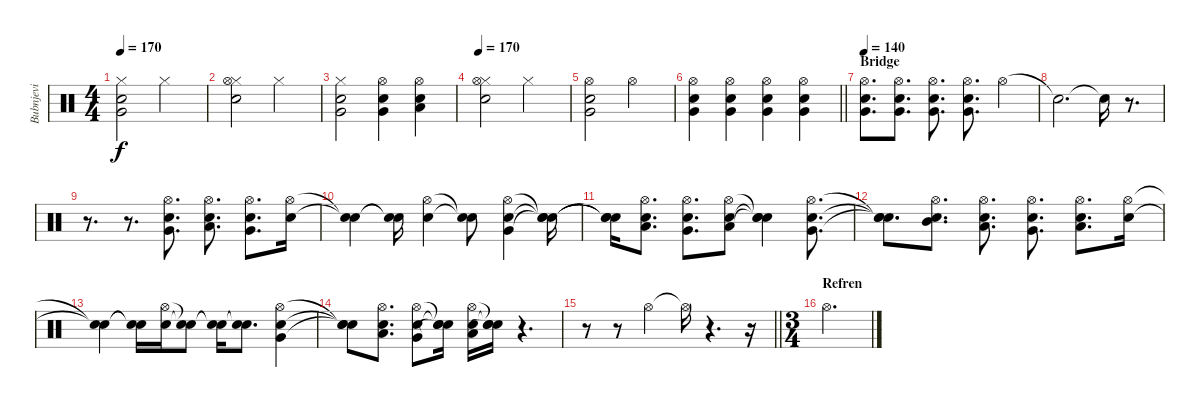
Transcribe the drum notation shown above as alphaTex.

\track ("Bubnjevi" "Bubnjevi") {instrument percussion}
\staff {score}
\articulation defaults
\ts (4 4)
\tempo 170
\clef neutral
\ks c
("Hi-Hat (closed)" "Very Low Tom (hit)" "Electric Snare (hit)").2{dy f} "Hi-Hat (closed)".2 |
("Hi-Hat (closed)" "Hi-Hat (open)" "Electric Snare (hit)").2 "Hi-Hat (closed)".2 |
("Hi-Hat (closed)" "Very Low Tom (hit)" "Electric Snare (hit)").2 ("Hi-Hat (open)" "Very Low Tom (hit)" "Electric Snare (hit)").4 ("Hi-Hat (open)" "Low Tom (hit)" "Electric Snare (hit)").4 |
\tempo 170
("Hi-Hat (closed)" "Hi-Hat (open)" "Electric Snare (hit)").2 "Hi-Hat (closed)".2 |
("Hi-Hat (open)" "Electric Snare (hit)" "Very Low Tom (hit)").2 "Hi-Hat (open)".2 |
\barLineRight lightlight
("Hi-Hat (open)" "Very Low Tom (hit)" "Electric Snare (hit)").4 ("Hi-Hat (open)" "Very Low Tom (hit)" "Electric Snare (hit)").4 ("Hi-Hat (open)" "Very Low Tom (hit)" "Electric Snare (hit)").4 ("Hi-Hat (open)" "Very Low Tom (hit)" "Electric Snare (hit)").4 |
\section ("" "Bridge")
\tempo 140
("Hi-Hat (open)" "Very Low Tom (hit)" "Electric Snare (hit)").8{d} ("Hi-Hat (open)" "Very Low Tom (hit)" "Electric Snare (hit)").8{d} ("Hi-Hat (open)" "Very Low Tom (hit)" "Electric Snare (hit)").8{d} ("Hi-Hat (open)" "Very Low Tom (hit)" "Electric Snare (hit)").8{d} "Hi-Hat (open)".4 |
"Snare (hit)"{t}.2{d} "Snare (hit)"{t}.16 r.8{d} |
r.8{d} r.8{d} ("Hi-Hat (open)" "Very Low Tom (hit)" "Electric Snare (hit)").8{d} ("Hi-Hat (open)" "Low Tom (hit)" "Electric Snare (hit)").8{d} ("Hi-Hat (open)" "Very Low Tom (hit)" "Electric Snare (hit)").8{d} ("Hi-Hat (open)" "Electric Snare (hit)").16 |
("Snare (hit)"{t} "Snare (hit)"{t}).4 ("Snare (hit)"{t} "Snare (hit)"{t}).16 ("Hi-Hat (open)" "Electric Snare (hit)").4 ("Snare (hit)"{t} "Snare (hit)"{t}).8 ("Hi-Hat (open)" "Electric Snare (hit)" "Very Low Tom (hit)").4 ("Snare (hit)"{t} "Snare (hit)"{t} "Snare (hit)"{t}).16 |
("Snare (hit)"{t} "Snare (hit)"{t} "Snare (hit)"{t}).16 ("Hi-Hat (open)" "Low Tom (hit)" "Electric Snare (hit)").8{d} ("Hi-Hat (open)" "Very Low Tom (hit)" "Electric Snare (hit)").8{d} ("Hi-Hat (open)" "Low Tom (hit)" "Electric Snare (hit)").8 ("Snare (hit)"{t} "Snare (hit)"{t} "Snare (hit)"{t}).4 ("Hi-Hat (open)" "Very Low Tom (hit)" "Electric Snare (hit)").8{d} |
("Snare (hit)"{t} "Snare (hit)"{t} "Snare (hit)"{t}).8{d} ("Hi-Hat (open)" "Mid Tom (hit)" "Electric Snare (hit)").8{d} ("Hi-Hat (open)" "Low Tom (hit)" "Electric Snare (hit)").8{d} ("Hi-Hat (open)" "Very Low Tom (hit)" "Electric Snare (hit)").8{d} ("Hi-Hat (open)" "Low Floor Tom (hit)" "Electric Snare (hit)").8{d} ("Hi-Hat (open)" "Electric Snare (hit)").16 |
("Snare (hit)"{t} "Snare (hit)"{t}).4 ("Snare (hit)"{t} "Snare (hit)"{t}).16 ("Hi-Hat (open)" "Electric Snare (hit)").16 ("Snare (hit)"{t} "Snare (hit)"{t}).8 ("Snare (hit)"{t} "Snare (hit)"{t}).16 ("Snare (hit)"{t} "Snare (hit)"{t}).8{d} ("Hi-Hat (open)" "Electric Snare (hit)" "Very Low Tom (hit)").4 |
("Snare (hit)"{t} "Snare (hit)"{t} "Snare (hit)"{t}).8 ("Hi-Hat (open)" "Low Tom (hit)" "Electric Snare (hit)").8{d} ("Hi-Hat (open)" "Very Low Tom (hit)" "Electric Snare (hit)").8 ("Snare (hit)"{t} "Snare (hit)"{t} "Snare (hit)"{t}).16 ("Hi-Hat (open)" "Low Tom (hit)" "Electric Snare (hit)").16 ("Snare (hit)"{t} "Snare (hit)"{t} "Snare (hit)"{t}).16 r.4{d} |
\barLineRight lightlight
r.8 r.8 "Hi-Hat (open)".4 "Hi-Hat (open)"{t}.16 r.4{d} r.16 |
\ts (3 4)
\section ("" "Refren")
"Hi-Hat (open)".2{d}
